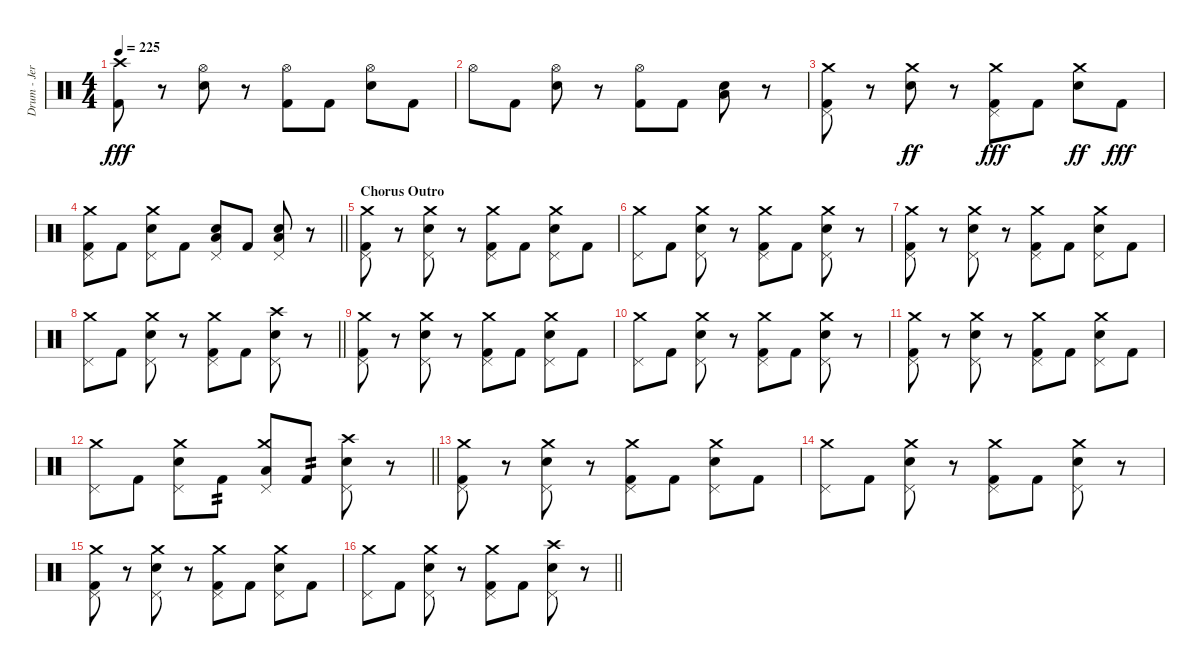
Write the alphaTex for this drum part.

\track ("Drum - Jerinx" "Drum - Jer") {instrument percussion}
\staff {score}
\articulation defaults
\ts (4 4)
\tempo 225
\clef neutral
\ks c
("Kick (hit) 2" "Crash high (hit)").8{dy fff} r.8 ("Hi-Hat (open)" "Snare (hit) 2").8 r.8 ("Hi-Hat (open)" "Kick (hit) 2").8 "Kick (hit) 2".8 ("Hi-Hat (open)" "Snare (hit) 2").8 "Kick (hit) 2".8 |
"Hi-Hat (open)".8 "Kick (hit) 2".8 ("Hi-Hat (open)" "Snare (hit) 2").8 r.8 ("Hi-Hat (open)" "Kick (hit) 2").8 "Kick (hit) 2".8 ("Snare (hit) 2" "Low Floor Tom (hit)").8 r.8 |
("Pedal Hi-Hat (hit)" "Kick (hit) 2" "Crash medium (hit)").8 r.8 ("Snare (hit) 2" "Crash medium (hit)").8{dy ff} r.8 ("Pedal Hi-Hat (hit)" "Kick (hit) 2" "Crash medium (hit)").8{dy fff} "Kick (hit) 2".8 ("Snare (hit) 2" "Crash medium (hit)").8{dy ff} "Kick (hit) 2".8{dy fff} |
\barLineRight lightlight
("Pedal Hi-Hat (hit)" "Kick (hit) 2" "Crash medium (hit)").8 "Kick (hit) 2".8 ("Pedal Hi-Hat (hit)" "Snare (hit) 2" "Crash medium (hit)").8 "Kick (hit) 2".8 ("Pedal Hi-Hat (hit)" "Snare (hit) 2" "Low Floor Tom (hit)").8 "Kick (hit) 2".8 ("Pedal Hi-Hat (hit)" "Snare (hit) 2" "Low Floor Tom (hit)").8 r.8 |
\section ("" "Chorus Outro")
("Pedal Hi-Hat (hit)" "Kick (hit) 2" "Crash medium (hit)").8 r.8 ("Pedal Hi-Hat (hit)" "Snare (hit) 2" "Crash medium (hit)").8 r.8 ("Pedal Hi-Hat (hit)" "Kick (hit) 2" "Crash medium (hit)").8 "Kick (hit) 2".8 ("Pedal Hi-Hat (hit)" "Snare (hit) 2" "Crash medium (hit)").8 "Kick (hit) 2".8 |
("Pedal Hi-Hat (hit)" "Crash medium (hit)").8 "Kick (hit) 2".8 ("Pedal Hi-Hat (hit)" "Snare (hit) 2" "Crash medium (hit)").8 r.8 ("Pedal Hi-Hat (hit)" "Kick (hit) 2" "Crash medium (hit)").8 "Kick (hit) 2".8 ("Pedal Hi-Hat (hit)" "Snare (hit) 2" "Crash medium (hit)").8 r.8 |
("Pedal Hi-Hat (hit)" "Kick (hit) 2" "Crash medium (hit)").8 r.8 ("Pedal Hi-Hat (hit)" "Snare (hit) 2" "Crash medium (hit)").8 r.8 ("Pedal Hi-Hat (hit)" "Kick (hit) 2" "Crash medium (hit)").8 "Kick (hit) 2".8 ("Pedal Hi-Hat (hit)" "Snare (hit) 2" "Crash medium (hit)").8 "Kick (hit) 2".8 |
\barLineRight lightlight
("Pedal Hi-Hat (hit)" "Crash medium (hit)").8 "Kick (hit) 2".8 ("Pedal Hi-Hat (hit)" "Snare (hit) 2" "Crash medium (hit)").8 r.8 ("Pedal Hi-Hat (hit)" "Kick (hit) 2" "Crash medium (hit)").8 "Kick (hit) 2".8 ("Pedal Hi-Hat (hit)" "Snare (hit) 2" "Crash high (hit)").8 r.8 |
("Pedal Hi-Hat (hit)" "Kick (hit) 2" "Crash medium (hit)").8 r.8 ("Pedal Hi-Hat (hit)" "Snare (hit) 2" "Crash medium (hit)").8 r.8 ("Pedal Hi-Hat (hit)" "Kick (hit) 2" "Crash medium (hit)").8 "Kick (hit) 2".8 ("Pedal Hi-Hat (hit)" "Snare (hit) 2" "Crash medium (hit)").8 "Kick (hit) 2".8 |
("Pedal Hi-Hat (hit)" "Crash medium (hit)").8 "Kick (hit) 2".8 ("Pedal Hi-Hat (hit)" "Snare (hit) 2" "Crash medium (hit)").8 r.8 ("Pedal Hi-Hat (hit)" "Kick (hit) 2" "Crash medium (hit)").8 "Kick (hit) 2".8 ("Pedal Hi-Hat (hit)" "Snare (hit) 2" "Crash medium (hit)").8 r.8 |
("Pedal Hi-Hat (hit)" "Kick (hit) 2" "Crash medium (hit)").8 r.8 ("Pedal Hi-Hat (hit)" "Snare (hit) 2" "Crash medium (hit)").8 r.8 ("Pedal Hi-Hat (hit)" "Kick (hit) 2" "Crash medium (hit)").8 "Kick (hit) 2".8 ("Pedal Hi-Hat (hit)" "Snare (hit) 2" "Crash medium (hit)").8 "Kick (hit) 2".8 |
\barLineRight lightlight
("Pedal Hi-Hat (hit)" "Crash medium (hit)").8 "Kick (hit) 2".8 ("Pedal Hi-Hat (hit)" "Snare (hit) 2" "Crash medium (hit)").8 "Kick (hit) 2".8{tp 2} ("Pedal Hi-Hat (hit)" "Low Tom (hit)" "Crash medium (hit)").8 "Kick (hit) 2".8{tp 2} ("Pedal Hi-Hat (hit)" "Snare (hit) 2" "Crash high (hit)").8 r.8 |
("Pedal Hi-Hat (hit)" "Kick (hit) 2" "Crash medium (hit)").8 r.8 ("Pedal Hi-Hat (hit)" "Snare (hit) 2" "Crash medium (hit)").8 r.8 ("Pedal Hi-Hat (hit)" "Kick (hit) 2" "Crash medium (hit)").8 "Kick (hit) 2".8 ("Pedal Hi-Hat (hit)" "Snare (hit) 2" "Crash medium (hit)").8 "Kick (hit) 2".8 |
("Pedal Hi-Hat (hit)" "Crash medium (hit)").8 "Kick (hit) 2".8 ("Pedal Hi-Hat (hit)" "Snare (hit) 2" "Crash medium (hit)").8 r.8 ("Pedal Hi-Hat (hit)" "Kick (hit) 2" "Crash medium (hit)").8 "Kick (hit) 2".8 ("Pedal Hi-Hat (hit)" "Snare (hit) 2" "Crash medium (hit)").8 r.8 |
("Pedal Hi-Hat (hit)" "Kick (hit) 2" "Crash medium (hit)").8 r.8 ("Pedal Hi-Hat (hit)" "Snare (hit) 2" "Crash medium (hit)").8 r.8 ("Pedal Hi-Hat (hit)" "Kick (hit) 2" "Crash medium (hit)").8 "Kick (hit) 2".8 ("Pedal Hi-Hat (hit)" "Snare (hit) 2" "Crash medium (hit)").8 "Kick (hit) 2".8 |
\barLineRight lightlight
("Pedal Hi-Hat (hit)" "Crash medium (hit)").8 "Kick (hit) 2".8 ("Pedal Hi-Hat (hit)" "Snare (hit) 2" "Crash medium (hit)").8 r.8 ("Pedal Hi-Hat (hit)" "Kick (hit) 2" "Crash medium (hit)").8 "Kick (hit) 2".8 ("Pedal Hi-Hat (hit)" "Snare (hit) 2" "Crash high (hit)").8 r.8
